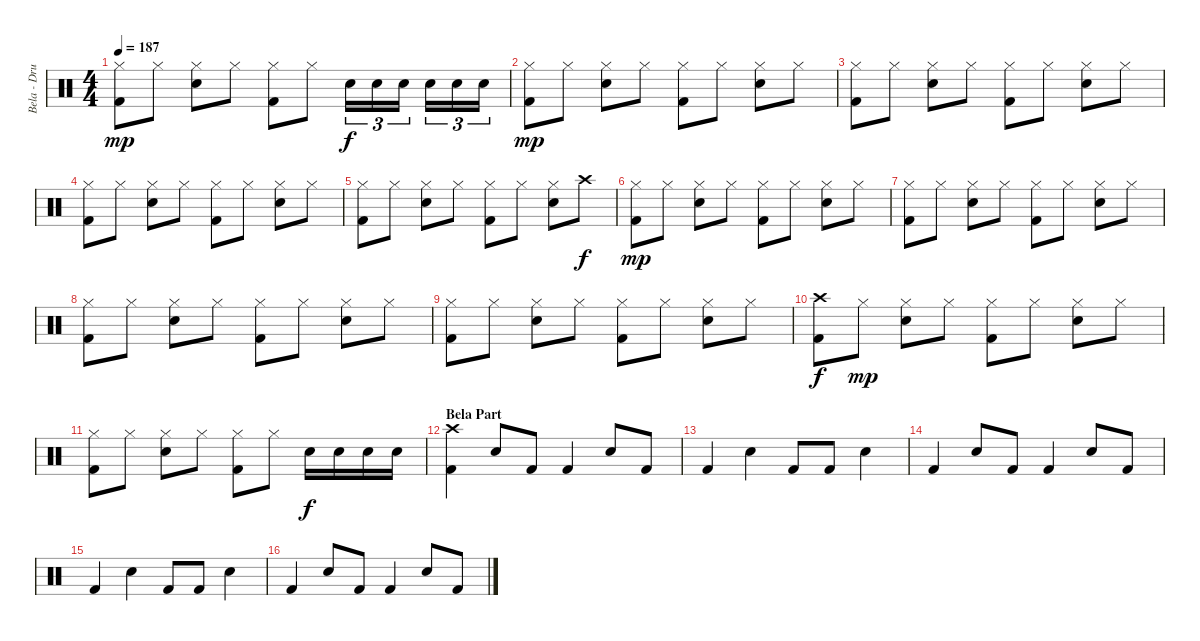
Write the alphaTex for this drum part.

\track ("Bela - Drums" "Bela - Dru") {instrument percussion}
\staff {score}
\articulation defaults
\ts (4 4)
\tempo 187
\clef neutral
\ks c
("Hi-Hat (closed)" "Kick (hit) 2").8{dy mp} "Hi-Hat (closed)".8 ("Hi-Hat (closed)" "Snare (hit) 2").8 "Hi-Hat (closed)".8 ("Hi-Hat (closed)" "Kick (hit) 2").8 "Hi-Hat (closed)".8 "Snare (hit) 2".16{tu (3 2) dy f} "Snare (hit) 2".16{tu (3 2)} "Snare (hit) 2".16{tu (3 2)} "Snare (hit) 2".16{tu (3 2)} "Snare (hit) 2".16{tu (3 2)} "Snare (hit) 2".16{tu (3 2)} |
("Hi-Hat (closed)" "Kick (hit) 2").8{dy mp} "Hi-Hat (closed)".8 ("Hi-Hat (closed)" "Snare (hit) 2").8 "Hi-Hat (closed)".8 ("Hi-Hat (closed)" "Kick (hit) 2").8 "Hi-Hat (closed)".8 ("Hi-Hat (closed)" "Snare (hit) 2").8 "Hi-Hat (closed)".8 |
("Hi-Hat (closed)" "Kick (hit) 2").8 "Hi-Hat (closed)".8 ("Hi-Hat (closed)" "Snare (hit) 2").8 "Hi-Hat (closed)".8 ("Hi-Hat (closed)" "Kick (hit) 2").8 "Hi-Hat (closed)".8 ("Hi-Hat (closed)" "Snare (hit) 2").8 "Hi-Hat (closed)".8 |
("Hi-Hat (closed)" "Kick (hit) 2").8 "Hi-Hat (closed)".8 ("Hi-Hat (closed)" "Snare (hit) 2").8 "Hi-Hat (closed)".8 ("Hi-Hat (closed)" "Kick (hit) 2").8 "Hi-Hat (closed)".8 ("Hi-Hat (closed)" "Snare (hit) 2").8 "Hi-Hat (closed)".8 |
("Hi-Hat (closed)" "Kick (hit) 2").8 "Hi-Hat (closed)".8 ("Hi-Hat (closed)" "Snare (hit) 2").8 "Hi-Hat (closed)".8 ("Hi-Hat (closed)" "Kick (hit) 2").8 "Hi-Hat (closed)".8 ("Hi-Hat (closed)" "Snare (hit) 2").8 "Crash high (hit)".8{dy f} |
("Hi-Hat (closed)" "Kick (hit) 2").8{dy mp} "Hi-Hat (closed)".8 ("Hi-Hat (closed)" "Snare (hit) 2").8 "Hi-Hat (closed)".8 ("Hi-Hat (closed)" "Kick (hit) 2").8 "Hi-Hat (closed)".8 ("Hi-Hat (closed)" "Snare (hit) 2").8 "Hi-Hat (closed)".8 |
("Hi-Hat (closed)" "Kick (hit) 2").8 "Hi-Hat (closed)".8 ("Hi-Hat (closed)" "Snare (hit) 2").8 "Hi-Hat (closed)".8 ("Hi-Hat (closed)" "Kick (hit) 2").8 "Hi-Hat (closed)".8 ("Hi-Hat (closed)" "Snare (hit) 2").8 "Hi-Hat (closed)".8 |
("Hi-Hat (closed)" "Kick (hit) 2").8 "Hi-Hat (closed)".8 ("Hi-Hat (closed)" "Snare (hit) 2").8 "Hi-Hat (closed)".8 ("Hi-Hat (closed)" "Kick (hit) 2").8 "Hi-Hat (closed)".8 ("Hi-Hat (closed)" "Snare (hit) 2").8 "Hi-Hat (closed)".8 |
("Hi-Hat (closed)" "Kick (hit) 2").8 "Hi-Hat (closed)".8 ("Hi-Hat (closed)" "Snare (hit) 2").8 "Hi-Hat (closed)".8 ("Hi-Hat (closed)" "Kick (hit) 2").8 "Hi-Hat (closed)".8 ("Hi-Hat (closed)" "Snare (hit) 2").8 "Hi-Hat (closed)".8 |
("Crash high (hit)" "Kick (hit) 2").8{dy f} "Hi-Hat (closed)".8{dy mp} ("Hi-Hat (closed)" "Snare (hit) 2").8 "Hi-Hat (closed)".8 ("Hi-Hat (closed)" "Kick (hit) 2").8 "Hi-Hat (closed)".8 ("Hi-Hat (closed)" "Snare (hit) 2").8 "Hi-Hat (closed)".8 |
("Hi-Hat (closed)" "Kick (hit) 2").8 "Hi-Hat (closed)".8 ("Hi-Hat (closed)" "Snare (hit) 2").8 "Hi-Hat (closed)".8 ("Hi-Hat (closed)" "Kick (hit) 2").8 "Hi-Hat (closed)".8 "Snare (hit) 2".16{dy f} "Snare (hit) 2".16 "Snare (hit) 2".16 "Snare (hit) 2".16 |
\section ("" "Bela Part")
("Crash high (hit)" "Kick (hit) 2").4 "Snare (hit) 2".8 "Kick (hit) 2".8 "Kick (hit) 2".4 "Snare (hit) 2".8 "Kick (hit) 2".8 |
"Kick (hit) 2".4 "Snare (hit) 2".4 "Kick (hit) 2".8 "Kick (hit) 2".8 "Snare (hit) 2".4 |
"Kick (hit) 2".4 "Snare (hit) 2".8 "Kick (hit) 2".8 "Kick (hit) 2".4 "Snare (hit) 2".8 "Kick (hit) 2".8 |
"Kick (hit) 2".4 "Snare (hit) 2".4 "Kick (hit) 2".8 "Kick (hit) 2".8 "Snare (hit) 2".4 |
"Kick (hit) 2".4 "Snare (hit) 2".8 "Kick (hit) 2".8 "Kick (hit) 2".4 "Snare (hit) 2".8 "Kick (hit) 2".8
